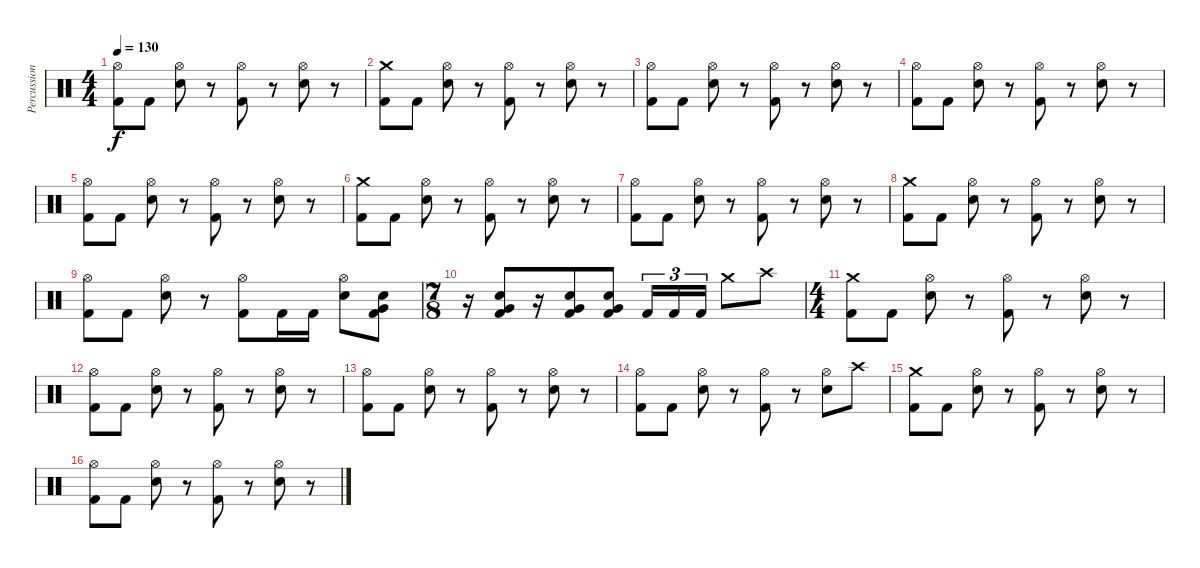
\track ("Percussions" "Percussion") {instrument percussion}
\staff {score}
\articulation defaults
\ts (4 4)
\tempo 130
\clef neutral
\ks c
("Hi-Hat (open)" "Kick (hit) 2").8{dy f} "Kick (hit) 2".8 ("Hi-Hat (open)" "Electric Snare (hit)").8 r.8 ("Hi-Hat (open)" "Kick (hit) 2").8 r.8 ("Hi-Hat (open)" "Electric Snare (hit)").8 r.8 |
("Crash medium (hit)" "Kick (hit) 2").8 "Kick (hit) 2".8 ("Hi-Hat (open)" "Electric Snare (hit)").8 r.8 ("Hi-Hat (open)" "Kick (hit) 2").8 r.8 ("Hi-Hat (open)" "Electric Snare (hit)").8 r.8 |
("Hi-Hat (open)" "Kick (hit) 2").8 "Kick (hit) 2".8 ("Hi-Hat (open)" "Electric Snare (hit)").8 r.8 ("Hi-Hat (open)" "Kick (hit) 2").8 r.8 ("Hi-Hat (open)" "Electric Snare (hit)").8 r.8 |
("Hi-Hat (open)" "Kick (hit) 2").8 "Kick (hit) 2".8 ("Hi-Hat (open)" "Electric Snare (hit)").8 r.8 ("Hi-Hat (open)" "Kick (hit) 2").8 r.8 ("Hi-Hat (open)" "Electric Snare (hit)").8 r.8 |
("Hi-Hat (open)" "Kick (hit) 2").8 "Kick (hit) 2".8 ("Hi-Hat (open)" "Electric Snare (hit)").8 r.8 ("Hi-Hat (open)" "Kick (hit) 2").8 r.8 ("Hi-Hat (open)" "Electric Snare (hit)").8 r.8 |
("Crash medium (hit)" "Kick (hit) 2").8 "Kick (hit) 2".8 ("Hi-Hat (open)" "Electric Snare (hit)").8 r.8 ("Hi-Hat (open)" "Kick (hit) 2").8 r.8 ("Hi-Hat (open)" "Electric Snare (hit)").8 r.8 |
("Hi-Hat (open)" "Kick (hit) 2").8 "Kick (hit) 2".8 ("Hi-Hat (open)" "Electric Snare (hit)").8 r.8 ("Hi-Hat (open)" "Kick (hit) 2").8 r.8 ("Hi-Hat (open)" "Electric Snare (hit)").8 r.8 |
("Crash medium (hit)" "Kick (hit) 2").8 "Kick (hit) 2".8 ("Hi-Hat (open)" "Electric Snare (hit)").8 r.8 ("Hi-Hat (open)" "Kick (hit) 2").8 r.8 ("Hi-Hat (open)" "Electric Snare (hit)").8 r.8 |
("Hi-Hat (open)" "Kick (hit) 2").8 "Kick (hit) 2".8 ("Hi-Hat (open)" "Electric Snare (hit)").8 r.8 ("Hi-Hat (open)" "Kick (hit) 2").8 "Kick (hit) 2".16 "Kick (hit) 2".16 ("Hi-Hat (open)" "Electric Snare (hit)").8 ("Electric Snare (hit)" "Very Low Tom (hit)" "Kick (hit) 2").8 |
\ts (7 8)
r.16 ("Electric Snare (hit)" "Very Low Tom (hit)" "Kick (hit) 2").8 r.16 ("Electric Snare (hit)" "Very Low Tom (hit)" "Kick (hit) 2").8 ("Electric Snare (hit)" "Very Low Tom (hit)" "Kick (hit) 2").8 "Kick (hit) 2".16{tu (3 2)} "Kick (hit) 2".16{tu (3 2)} "Kick (hit) 2".16{tu (3 2)} "Crash medium (hit)".8 "Crash high (hit)".8 |
\ts (4 4)
("Crash medium (hit)" "Kick (hit) 2").8 "Kick (hit) 2".8 ("Hi-Hat (open)" "Electric Snare (hit)").8 r.8 ("Hi-Hat (open)" "Kick (hit) 2").8 r.8 ("Hi-Hat (open)" "Electric Snare (hit)").8 r.8 |
("Hi-Hat (open)" "Kick (hit) 2").8 "Kick (hit) 2".8 ("Hi-Hat (open)" "Electric Snare (hit)").8 r.8 ("Hi-Hat (open)" "Kick (hit) 2").8 r.8 ("Hi-Hat (open)" "Electric Snare (hit)").8 r.8 |
("Hi-Hat (open)" "Kick (hit) 2").8 "Kick (hit) 2".8 ("Hi-Hat (open)" "Electric Snare (hit)").8 r.8 ("Hi-Hat (open)" "Kick (hit) 2").8 r.8 ("Hi-Hat (open)" "Electric Snare (hit)").8 r.8 |
("Hi-Hat (open)" "Kick (hit) 2").8 "Kick (hit) 2".8 ("Hi-Hat (open)" "Electric Snare (hit)").8 r.8 ("Hi-Hat (open)" "Kick (hit) 2").8 r.8 ("Hi-Hat (open)" "Electric Snare (hit)").8 "Crash high (hit)".8 |
("Crash medium (hit)" "Kick (hit) 2").8 "Kick (hit) 2".8 ("Hi-Hat (open)" "Electric Snare (hit)").8 r.8 ("Hi-Hat (open)" "Kick (hit) 2").8 r.8 ("Hi-Hat (open)" "Electric Snare (hit)").8 r.8 |
("Hi-Hat (open)" "Kick (hit) 2").8 "Kick (hit) 2".8 ("Hi-Hat (open)" "Electric Snare (hit)").8 r.8 ("Hi-Hat (open)" "Kick (hit) 2").8 r.8 ("Hi-Hat (open)" "Electric Snare (hit)").8 r.8
